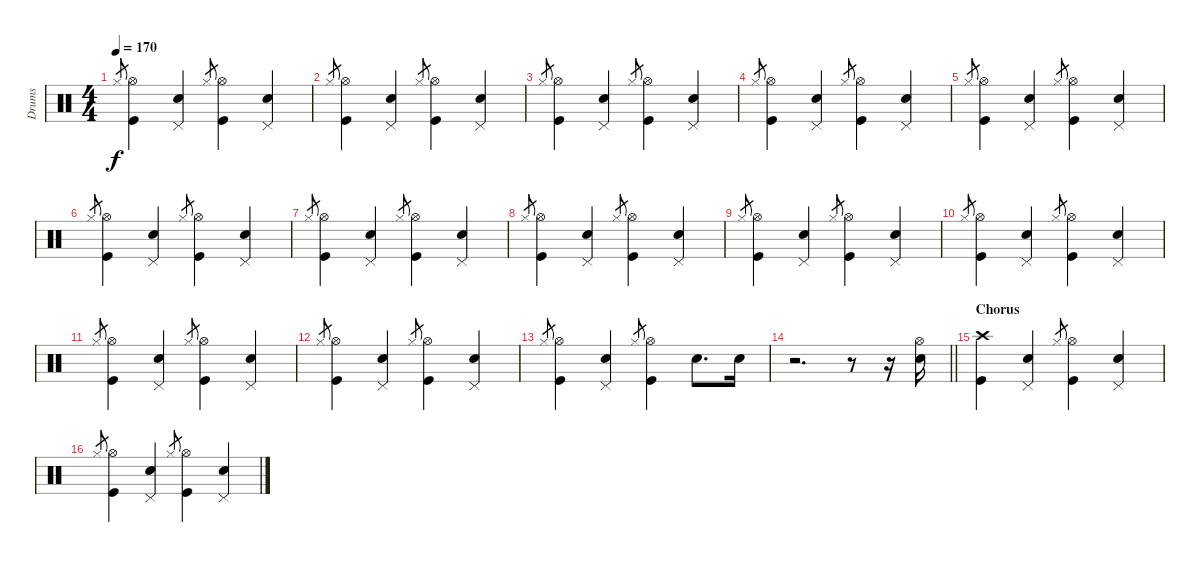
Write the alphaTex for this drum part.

\track ("Drums" "Drums") {instrument percussion}
\staff {score}
\articulation defaults
\ts (4 4)
\tempo 170
\clef neutral
\ks aminor "Hi-Hat (closed)".8{gr dy f}
("Kick (hit)" "Hi-Hat (open)").4 ("Electric Snare (hit)" "Pedal Hi-Hat (hit)").4 "Hi-Hat (closed)".8{gr} ("Kick (hit)" "Hi-Hat (open)").4 ("Electric Snare (hit)" "Pedal Hi-Hat (hit)").4 |
"Hi-Hat (closed)".8{gr} ("Kick (hit)" "Hi-Hat (open)").4 ("Electric Snare (hit)" "Pedal Hi-Hat (hit)").4 "Hi-Hat (closed)".8{gr} ("Kick (hit)" "Hi-Hat (open)").4 ("Electric Snare (hit)" "Pedal Hi-Hat (hit)").4 |
"Hi-Hat (closed)".8{gr} ("Kick (hit)" "Hi-Hat (open)").4 ("Electric Snare (hit)" "Pedal Hi-Hat (hit)").4 "Hi-Hat (closed)".8{gr} ("Kick (hit)" "Hi-Hat (open)").4 ("Electric Snare (hit)" "Pedal Hi-Hat (hit)").4 |
"Hi-Hat (closed)".8{gr} ("Kick (hit)" "Hi-Hat (open)").4 ("Electric Snare (hit)" "Pedal Hi-Hat (hit)").4 "Hi-Hat (closed)".8{gr} ("Kick (hit)" "Hi-Hat (open)").4 ("Electric Snare (hit)" "Pedal Hi-Hat (hit)").4 |
"Hi-Hat (closed)".8{gr} ("Kick (hit)" "Hi-Hat (open)").4 ("Electric Snare (hit)" "Pedal Hi-Hat (hit)").4 "Hi-Hat (closed)".8{gr} ("Kick (hit)" "Hi-Hat (open)").4 ("Electric Snare (hit)" "Pedal Hi-Hat (hit)").4 |
"Hi-Hat (closed)".8{gr} ("Kick (hit)" "Hi-Hat (open)").4 ("Electric Snare (hit)" "Pedal Hi-Hat (hit)").4 "Hi-Hat (closed)".8{gr} ("Kick (hit)" "Hi-Hat (open)").4 ("Electric Snare (hit)" "Pedal Hi-Hat (hit)").4 |
"Hi-Hat (closed)".8{gr} ("Kick (hit)" "Hi-Hat (open)").4 ("Electric Snare (hit)" "Pedal Hi-Hat (hit)").4 "Hi-Hat (closed)".8{gr} ("Kick (hit)" "Hi-Hat (open)").4 ("Electric Snare (hit)" "Pedal Hi-Hat (hit)").4 |
"Hi-Hat (closed)".8{gr} ("Kick (hit)" "Hi-Hat (open)").4 ("Electric Snare (hit)" "Pedal Hi-Hat (hit)").4 "Hi-Hat (closed)".8{gr} ("Kick (hit)" "Hi-Hat (open)").4 ("Electric Snare (hit)" "Pedal Hi-Hat (hit)").4 |
"Hi-Hat (closed)".8{gr} ("Kick (hit)" "Hi-Hat (open)").4 ("Electric Snare (hit)" "Pedal Hi-Hat (hit)").4 "Hi-Hat (closed)".8{gr} ("Kick (hit)" "Hi-Hat (open)").4 ("Electric Snare (hit)" "Pedal Hi-Hat (hit)").4 |
"Hi-Hat (closed)".8{gr} ("Kick (hit)" "Hi-Hat (open)").4 ("Electric Snare (hit)" "Pedal Hi-Hat (hit)").4 "Hi-Hat (closed)".8{gr} ("Kick (hit)" "Hi-Hat (open)").4 ("Electric Snare (hit)" "Pedal Hi-Hat (hit)").4 |
"Hi-Hat (closed)".8{gr} ("Kick (hit)" "Hi-Hat (open)").4 ("Electric Snare (hit)" "Pedal Hi-Hat (hit)").4 "Hi-Hat (closed)".8{gr} ("Kick (hit)" "Hi-Hat (open)").4 ("Electric Snare (hit)" "Pedal Hi-Hat (hit)").4 |
"Hi-Hat (closed)".8{gr} ("Kick (hit)" "Hi-Hat (open)").4 ("Electric Snare (hit)" "Pedal Hi-Hat (hit)").4 "Hi-Hat (closed)".8{gr} ("Kick (hit)" "Hi-Hat (open)").4 ("Electric Snare (hit)" "Pedal Hi-Hat (hit)").4 |
"Hi-Hat (closed)".8{gr} ("Kick (hit)" "Hi-Hat (open)").4 ("Electric Snare (hit)" "Pedal Hi-Hat (hit)").4 "Hi-Hat (closed)".8{gr} ("Kick (hit)" "Hi-Hat (open)").4 "Electric Snare (hit)".8{d} "Electric Snare (hit)".16 |
\barLineRight lightlight
r.2{d} r.8 r.16 ("Hi-Hat (open)" "Electric Snare (hit)").16 |
\section ("" "Chorus")
("Kick (hit)" "Crash high (hit)").4 ("Electric Snare (hit)" "Pedal Hi-Hat (hit)").4 "Hi-Hat (closed)".8{gr} ("Kick (hit)" "Hi-Hat (open)").4 ("Electric Snare (hit)" "Pedal Hi-Hat (hit)").4 |
"Hi-Hat (closed)".8{gr} ("Kick (hit)" "Hi-Hat (open)").4 ("Electric Snare (hit)" "Pedal Hi-Hat (hit)").4 "Hi-Hat (closed)".8{gr} ("Kick (hit)" "Hi-Hat (open)").4 ("Electric Snare (hit)" "Pedal Hi-Hat (hit)").4
